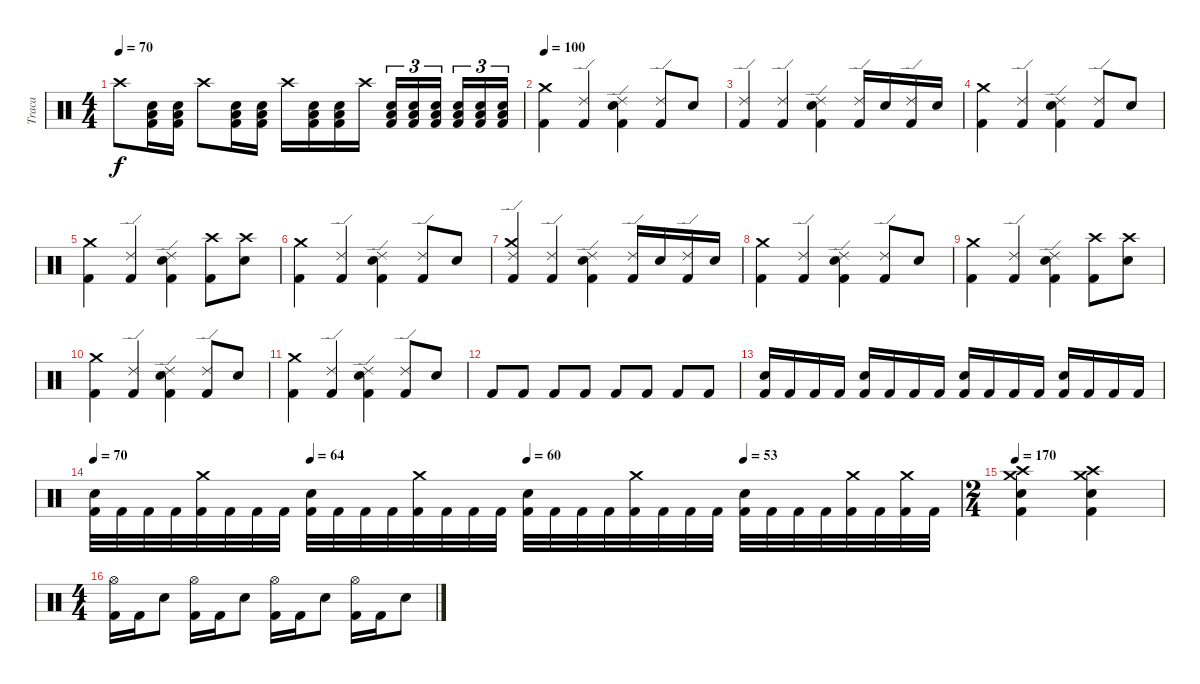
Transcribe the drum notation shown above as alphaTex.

\track ("Traca" "Traca") {instrument percussion}
\staff {score}
\articulation defaults
\ts (4 4)
\tempo 70
\clef neutral
\ks c "Crash high (hit)".8{dy f}
("Snare (hit) 2" "Low Floor Tom (hit)" "Kick (hit) 2").16 ("Snare (hit) 2" "Low Floor Tom (hit)" "Kick (hit) 2").16 "Crash high (hit)".8 ("Snare (hit) 2" "Low Floor Tom (hit)" "Kick (hit) 2").16 ("Snare (hit) 2" "Low Floor Tom (hit)" "Kick (hit) 2").16 "Crash high (hit)".16 ("Snare (hit) 2" "Low Floor Tom (hit)" "Kick (hit) 2").16 ("Snare (hit) 2" "Low Floor Tom (hit)" "Kick (hit) 2").16 "Crash high (hit)".16 ("Snare (hit) 2" "Low Floor Tom (hit)" "Kick (hit) 2").16{tu (3 2)} ("Snare (hit) 2" "Low Floor Tom (hit)" "Kick (hit) 2").16{tu (3 2)} ("Snare (hit) 2" "Low Floor Tom (hit)" "Kick (hit) 2").16{tu (3 2)} ("Snare (hit) 2" "Low Floor Tom (hit)" "Kick (hit) 2").16{tu (3 2)} ("Snare (hit) 2" "Low Floor Tom (hit)" "Kick (hit) 2").16{tu (3 2)} ("Snare (hit) 2" "Low Floor Tom (hit)" "Kick (hit) 2").16{tu (3 2)} |
\tempo 100
("Crash medium (hit)" "Kick (hit) 2").4 ("Ride (edge) 2" "Kick (hit) 2").4 ("Ride (edge) 2" "Snare (hit) 2" "Kick (hit) 2").4 ("Ride (edge) 2" "Kick (hit) 2").8 "Snare (hit) 2".8 |
("Ride (edge) 2" "Kick (hit) 2").4 ("Ride (edge) 2" "Kick (hit) 2").4 ("Ride (edge) 2" "Snare (hit) 2" "Kick (hit) 2").4 ("Ride (edge) 2" "Kick (hit) 2").16 "Snare (hit) 2".16 ("Ride (edge) 2" "Kick (hit) 2").16 "Snare (hit) 2".16 |
("Crash medium (hit)" "Kick (hit) 2").4 ("Ride (edge) 2" "Kick (hit) 2").4 ("Ride (edge) 2" "Snare (hit) 2" "Kick (hit) 2").4 ("Ride (edge) 2" "Kick (hit) 2").8 "Snare (hit) 2".8 |
("Crash medium (hit)" "Kick (hit) 2").4 ("Ride (edge) 2" "Kick (hit) 2").4 ("Ride (edge) 2" "Snare (hit) 2" "Kick (hit) 2").4 ("Crash high (hit)" "Kick (hit) 2").8 ("Crash high (hit)" "Snare (hit) 2").8 |
("Crash medium (hit)" "Kick (hit) 2").4 ("Ride (edge) 2" "Kick (hit) 2").4 ("Ride (edge) 2" "Snare (hit) 2" "Kick (hit) 2").4 ("Ride (edge) 2" "Kick (hit) 2").8 "Snare (hit) 2".8 |
("Crash medium (hit)" "Ride (edge) 2" "Kick (hit) 2").4 ("Ride (edge) 2" "Kick (hit) 2").4 ("Ride (edge) 2" "Snare (hit) 2" "Kick (hit) 2").4 ("Ride (edge) 2" "Kick (hit) 2").16 "Snare (hit) 2".16 ("Ride (edge) 2" "Kick (hit) 2").16 "Snare (hit) 2".16 |
("Crash medium (hit)" "Kick (hit) 2").4 ("Ride (edge) 2" "Kick (hit) 2").4 ("Ride (edge) 2" "Snare (hit) 2" "Kick (hit) 2").4 ("Ride (edge) 2" "Kick (hit) 2").8 "Snare (hit) 2".8 |
("Crash medium (hit)" "Kick (hit) 2").4 ("Ride (edge) 2" "Kick (hit) 2").4 ("Ride (edge) 2" "Snare (hit) 2" "Kick (hit) 2").4 ("Crash high (hit)" "Kick (hit) 2").8 ("Crash high (hit)" "Snare (hit) 2").8 |
("Crash medium (hit)" "Kick (hit) 2").4 ("Ride (edge) 2" "Kick (hit) 2").4 ("Ride (edge) 2" "Snare (hit) 2" "Kick (hit) 2").4 ("Ride (edge) 2" "Kick (hit) 2").8 "Snare (hit) 2".8 |
("Crash medium (hit)" "Kick (hit) 2").4 ("Ride (edge) 2" "Kick (hit) 2").4 ("Ride (edge) 2" "Snare (hit) 2" "Kick (hit) 2").4 ("Ride (edge) 2" "Kick (hit) 2").8 "Snare (hit) 2".8 |
"Kick (hit) 2".8 "Kick (hit) 2".8 "Kick (hit) 2".8 "Kick (hit) 2".8 "Kick (hit) 2".8 "Kick (hit) 2".8 "Kick (hit) 2".8 "Kick (hit) 2".8 |
("Snare (hit) 2" "Kick (hit) 2").16 "Kick (hit) 2".16 "Kick (hit) 2".16 "Kick (hit) 2".16 ("Snare (hit) 2" "Kick (hit) 2").16 "Kick (hit) 2".16 "Kick (hit) 2".16 "Kick (hit) 2".16 ("Snare (hit) 2" "Kick (hit) 2").16 "Kick (hit) 2".16 "Kick (hit) 2".16 "Kick (hit) 2".16 ("Snare (hit) 2" "Kick (hit) 2").16 "Kick (hit) 2".16 "Kick (hit) 2".16 "Kick (hit) 2".16 |
\tempo 70
\tempo (64 0.25)
\tempo (60 0.5)
\tempo (53 0.75)
("Snare (hit) 2" "Kick (hit) 2").32 "Kick (hit) 2".32 "Kick (hit) 2".32 "Kick (hit) 2".32 ("Crash medium (hit)" "Kick (hit) 2").32 "Kick (hit) 2".32 "Kick (hit) 2".32 "Kick (hit) 2".32 ("Snare (hit) 2" "Kick (hit) 2").32 "Kick (hit) 2".32 "Kick (hit) 2".32 "Kick (hit) 2".32 ("Crash medium (hit)" "Kick (hit) 2").32 "Kick (hit) 2".32 "Kick (hit) 2".32 "Kick (hit) 2".32 ("Snare (hit) 2" "Kick (hit) 2").32 "Kick (hit) 2".32 "Kick (hit) 2".32 "Kick (hit) 2".32 ("Crash medium (hit)" "Kick (hit) 2").32 "Kick (hit) 2".32 "Kick (hit) 2".32 "Kick (hit) 2".32 ("Snare (hit) 2" "Kick (hit) 2").32 "Kick (hit) 2".32 "Kick (hit) 2".32 "Kick (hit) 2".32 ("Crash medium (hit)" "Kick (hit) 2").32 "Kick (hit) 2".32 ("Crash medium (hit)" "Kick (hit) 2").32 "Kick (hit) 2".32 |
\ts (2 4)
\tempo 170
("Crash high (hit)" "Crash medium (hit)" "Snare (hit) 2" "Kick (hit) 2").4 ("Crash high (hit)" "Crash medium (hit)" "Snare (hit) 2" "Kick (hit) 2").4 |
\ts (4 4)
("Hi-Hat (open)" "Kick (hit) 2").16 "Kick (hit) 2".16 "Snare (hit) 2".8 ("Hi-Hat (open)" "Kick (hit) 2").16 "Kick (hit) 2".16 "Snare (hit) 2".8 ("Hi-Hat (open)" "Kick (hit) 2").16 "Kick (hit) 2".16 "Snare (hit) 2".8 ("Hi-Hat (open)" "Kick (hit) 2").16 "Kick (hit) 2".16 "Snare (hit) 2".8
